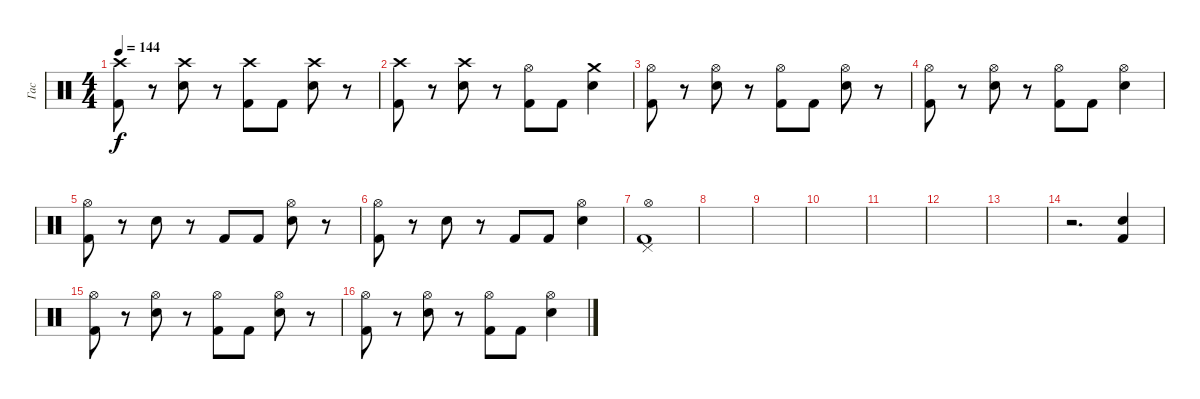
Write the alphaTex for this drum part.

\track ("Гас" "Гас") {instrument percussion}
\staff {score}
\articulation defaults
\ts (4 4)
\tempo 144
\clef neutral
\ks c
("Crash high (hit)" "Kick (hit) 2").8{dy f} r.8 ("Crash high (hit)" "Electric Snare (hit)").8 r.8 ("Crash high (hit)" "Kick (hit) 2").8 "Kick (hit) 2".8 ("Crash high (hit)" "Electric Snare (hit)").8 r.8 |
("Crash high (hit)" "Kick (hit) 2").8 r.8 ("Crash high (hit)" "Electric Snare (hit)").8 r.8 ("Hi-Hat (open)" "Kick (hit) 2").8 "Kick (hit) 2".8 ("Crash medium (hit)" "Electric Snare (hit)").4 |
("Hi-Hat (open)" "Kick (hit) 2").8 r.8 ("Hi-Hat (open)" "Electric Snare (hit)").8 r.8 ("Hi-Hat (open)" "Kick (hit) 2").8 "Kick (hit) 2".8 ("Hi-Hat (open)" "Electric Snare (hit)").8 r.8 |
("Hi-Hat (open)" "Kick (hit) 2").8 r.8 ("Hi-Hat (open)" "Electric Snare (hit)").8 r.8 ("Hi-Hat (open)" "Kick (hit) 2").8 "Kick (hit) 2".8 ("Hi-Hat (open)" "Electric Snare (hit)").4 |
("Hi-Hat (open)" "Kick (hit) 2").8 r.8 "Electric Snare (hit)".8 r.8 "Kick (hit) 2".8 "Kick (hit) 2".8 ("Hi-Hat (open)" "Electric Snare (hit)").8 r.8 |
("Hi-Hat (open)" "Kick (hit) 2").8 r.8 "Electric Snare (hit)".8 r.8 "Kick (hit) 2".8 "Kick (hit) 2".8 ("Hi-Hat (open)" "Electric Snare (hit)").4 |
("Hi-Hat (open)" "Pedal Hi-Hat (hit)" "Kick (hit) 2").1 |
|
|
|
|
|
|
r.2{d} ("Kick (hit) 2" "Snare (hit) 2").4 |
("Hi-Hat (open)" "Kick (hit) 2").8 r.8 ("Hi-Hat (open)" "Electric Snare (hit)").8 r.8 ("Hi-Hat (open)" "Kick (hit) 2").8 "Kick (hit) 2".8 ("Hi-Hat (open)" "Electric Snare (hit)").8 r.8 |
("Hi-Hat (open)" "Kick (hit) 2").8 r.8 ("Hi-Hat (open)" "Electric Snare (hit)").8 r.8 ("Hi-Hat (open)" "Kick (hit) 2").8 "Kick (hit) 2".8 ("Hi-Hat (open)" "Electric Snare (hit)").4
